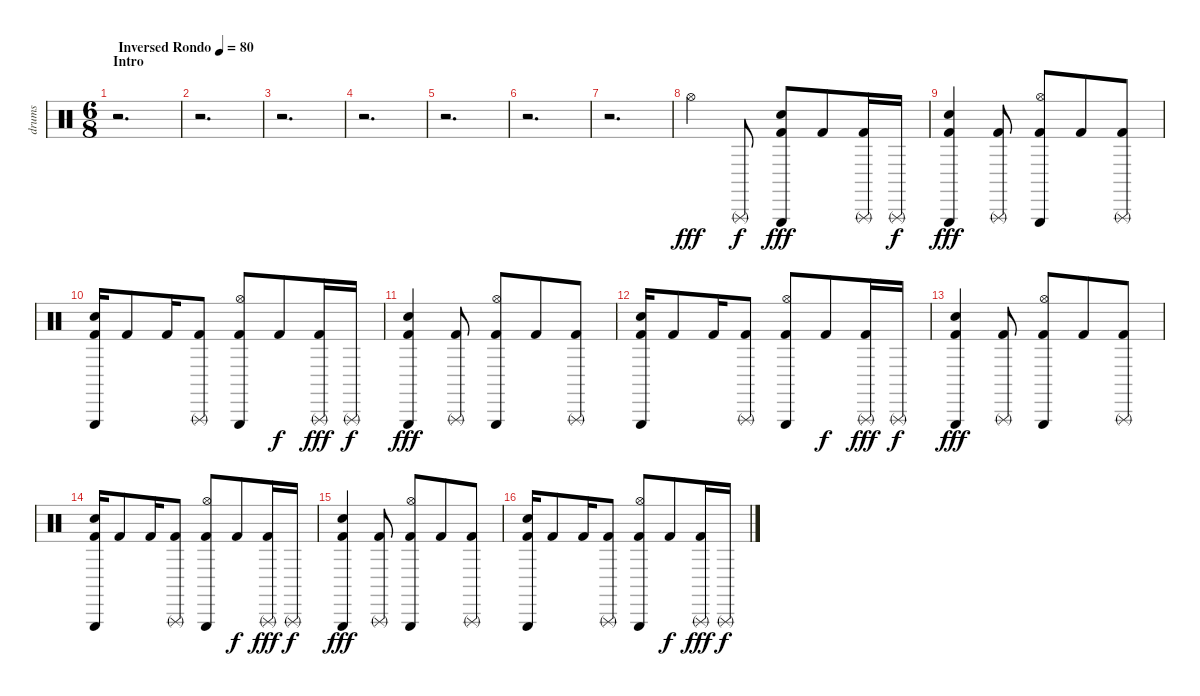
\track ("drums" "drums") {instrument percussion}
\staff {score}
\articulation defaults
\ts (6 8)
\section ("" "Intro")
\tempo (80 "Inversed Rondo")
\clef neutral
\ks c
r.2{d dy fff} |
r.2{d} |
r.2{d} |
r.2{d} |
r.2{d} |
r.2{d} |
r.2{d} |
"Hi-Hat (open)".4 "Triangle (rnute)".8{dy f} ("Kick (hit) 2" "Electric Snare (hit)" "Triangle (hit)").8{dy fff} "Kick (hit) 2".8 ("Kick (hit) 2" "Triangle (rnute)").16 "Triangle (rnute)".16{dy f} |
("Kick (hit) 2" "Electric Snare (hit)" "Triangle (hit)").4{dy fff} ("Kick (hit) 2" "Triangle (rnute)").8 ("Kick (hit) 2" "Hi-Hat (open)" "Triangle (hit)").8 "Kick (hit) 2".8 ("Kick (hit) 2" "Triangle (rnute)").8 |
("Kick (hit) 2" "Electric Snare (hit)" "Triangle (hit)").16 "Kick (hit) 2".8 "Kick (hit) 2".16 ("Kick (hit) 2" "Triangle (rnute)").8 ("Kick (hit) 2" "Hi-Hat (open)" "Triangle (hit)").8 "Kick (hit) 2".8{dy f} ("Kick (hit) 2" "Triangle (rnute)").16{dy fff} "Triangle (rnute)".16{dy f} |
("Kick (hit) 2" "Electric Snare (hit)" "Triangle (hit)").4{dy fff} ("Kick (hit) 2" "Triangle (rnute)").8 ("Kick (hit) 2" "Hi-Hat (open)" "Triangle (hit)").8 "Kick (hit) 2".8 ("Kick (hit) 2" "Triangle (rnute)").8 |
("Kick (hit) 2" "Electric Snare (hit)" "Triangle (hit)").16 "Kick (hit) 2".8 "Kick (hit) 2".16 ("Kick (hit) 2" "Triangle (rnute)").8 ("Kick (hit) 2" "Hi-Hat (open)" "Triangle (hit)").8 "Kick (hit) 2".8{dy f} ("Kick (hit) 2" "Triangle (rnute)").16{dy fff} "Triangle (rnute)".16{dy f} |
("Kick (hit) 2" "Electric Snare (hit)" "Triangle (hit)").4{dy fff} ("Kick (hit) 2" "Triangle (rnute)").8 ("Kick (hit) 2" "Hi-Hat (open)" "Triangle (hit)").8 "Kick (hit) 2".8 ("Kick (hit) 2" "Triangle (rnute)").8 |
("Kick (hit) 2" "Electric Snare (hit)" "Triangle (hit)").16 "Kick (hit) 2".8 "Kick (hit) 2".16 ("Kick (hit) 2" "Triangle (rnute)").8 ("Kick (hit) 2" "Hi-Hat (open)" "Triangle (hit)").8 "Kick (hit) 2".8{dy f} ("Kick (hit) 2" "Triangle (rnute)").16{dy fff} "Triangle (rnute)".16{dy f} |
("Kick (hit) 2" "Electric Snare (hit)" "Triangle (hit)").4{dy fff} ("Kick (hit) 2" "Triangle (rnute)").8 ("Kick (hit) 2" "Hi-Hat (open)" "Triangle (hit)").8 "Kick (hit) 2".8 ("Kick (hit) 2" "Triangle (rnute)").8 |
("Kick (hit) 2" "Electric Snare (hit)" "Triangle (hit)").16 "Kick (hit) 2".8 "Kick (hit) 2".16 ("Kick (hit) 2" "Triangle (rnute)").8 ("Kick (hit) 2" "Hi-Hat (open)" "Triangle (hit)").8 "Kick (hit) 2".8{dy f} ("Kick (hit) 2" "Triangle (rnute)").16{dy fff} "Triangle (rnute)".16{dy f}
